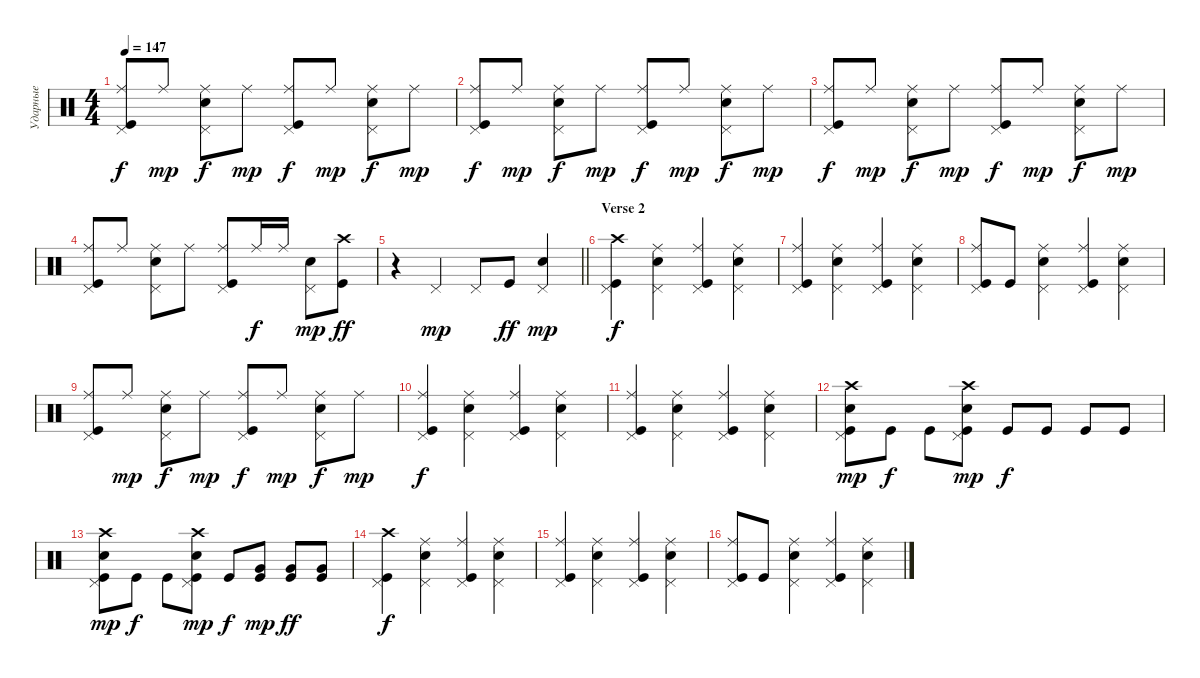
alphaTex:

\track ("Ударные" "Ударные") {instrument percussion}
\staff {score}
\articulation defaults
\ts (4 4)
\tempo 147
\clef neutral
\ks c
("Kick (hit)" "Ride (middle)" "Pedal Hi-Hat (hit)").8{dy f} "Ride (middle)".8{dy mp} ("Snare (hit) 2" "Ride (middle)" "Pedal Hi-Hat (hit)").8{dy f} "Ride (middle)".8{dy mp} ("Kick (hit)" "Pedal Hi-Hat (hit)" "Ride (middle)").8{dy f} "Ride (middle)".8{dy mp} ("Snare (hit) 2" "Pedal Hi-Hat (hit)" "Ride (middle)").8{dy f} "Ride (middle)".8{dy mp} |
("Kick (hit)" "Ride (middle)" "Pedal Hi-Hat (hit)").8{dy f} "Ride (middle)".8{dy mp} ("Snare (hit) 2" "Ride (middle)" "Pedal Hi-Hat (hit)").8{dy f} "Ride (middle)".8{dy mp} ("Kick (hit)" "Pedal Hi-Hat (hit)" "Ride (middle)").8{dy f} "Ride (middle)".8{dy mp} ("Snare (hit) 2" "Pedal Hi-Hat (hit)" "Ride (middle)").8{dy f} "Ride (middle)".8{dy mp} |
("Kick (hit)" "Ride (middle)" "Pedal Hi-Hat (hit)").8{dy f} "Ride (middle)".8{dy mp} ("Snare (hit) 2" "Ride (middle)" "Pedal Hi-Hat (hit)").8{dy f} "Ride (middle)".8{dy mp} ("Kick (hit)" "Pedal Hi-Hat (hit)" "Ride (middle)").8{dy f} "Ride (middle)".8{dy mp} ("Snare (hit) 2" "Pedal Hi-Hat (hit)" "Ride (middle)").8{dy f} "Ride (middle)".8{dy mp} |
("Kick (hit)" "Ride (middle)" "Pedal Hi-Hat (hit)").8 "Ride (middle)".8 ("Snare (hit) 2" "Ride (middle)" "Pedal Hi-Hat (hit)").8 "Ride (middle)".8 ("Kick (hit)" "Ride (middle)" "Pedal Hi-Hat (hit)").8 "Ride (middle)".16{dy f} "Ride (middle)".16 ("Snare (hit) 2" "Pedal Hi-Hat (hit)").8{dy mp} ("Kick (hit)" "Crash high (hit)").8{dy ff} |
\barLineRight lightlight
r.4 "Pedal Hi-Hat (hit)".4{dy mp} "Pedal Hi-Hat (hit)".8 "Kick (hit)".8{dy ff} ("Snare (hit) 2" "Pedal Hi-Hat (hit)").4{dy mp} |
\section ("" "Verse 2")
("Kick (hit)" "Crash high (hit)" "Pedal Hi-Hat (hit)").4{dy f} ("Ride (middle)" "Snare (hit) 2" "Pedal Hi-Hat (hit)").4 ("Ride (middle)" "Kick (hit)" "Pedal Hi-Hat (hit)").4 ("Ride (middle)" "Snare (hit) 2" "Pedal Hi-Hat (hit)").4 |
("Kick (hit)" "Ride (middle)" "Pedal Hi-Hat (hit)").4 ("Snare (hit) 2" "Ride (middle)" "Pedal Hi-Hat (hit)").4 ("Kick (hit)" "Ride (middle)" "Pedal Hi-Hat (hit)").4 ("Snare (hit) 2" "Ride (middle)" "Pedal Hi-Hat (hit)").4 |
("Kick (hit)" "Pedal Hi-Hat (hit)" "Ride (middle)").8 "Kick (hit)".8 ("Snare (hit) 2" "Ride (middle)" "Pedal Hi-Hat (hit)").4 ("Kick (hit)" "Ride (middle)" "Pedal Hi-Hat (hit)").4 ("Snare (hit) 2" "Ride (middle)" "Pedal Hi-Hat (hit)").4 |
("Kick (hit)" "Ride (middle)" "Pedal Hi-Hat (hit)").8 "Ride (middle)".8{dy mp} ("Snare (hit) 2" "Ride (middle)" "Pedal Hi-Hat (hit)").8{dy f} "Ride (middle)".8{dy mp} ("Kick (hit)" "Pedal Hi-Hat (hit)" "Ride (middle)").8{dy f} "Ride (middle)".8{dy mp} ("Snare (hit) 2" "Pedal Hi-Hat (hit)" "Ride (middle)").8{dy f} "Ride (middle)".8{dy mp} |
("Kick (hit)" "Ride (middle)" "Pedal Hi-Hat (hit)").4{dy f} ("Snare (hit) 2" "Ride (middle)" "Pedal Hi-Hat (hit)").4 ("Kick (hit)" "Ride (middle)" "Pedal Hi-Hat (hit)").4 ("Snare (hit) 2" "Ride (middle)" "Pedal Hi-Hat (hit)").4 |
("Kick (hit)" "Ride (middle)" "Pedal Hi-Hat (hit)").4 ("Snare (hit) 2" "Ride (middle)" "Pedal Hi-Hat (hit)").4 ("Kick (hit)" "Ride (middle)" "Pedal Hi-Hat (hit)").4 ("Snare (hit) 2" "Ride (middle)" "Pedal Hi-Hat (hit)").4 |
("Snare (hit) 2" "Crash high (hit)" "Pedal Hi-Hat (hit)" "Kick (hit)").8{dy mp} "Kick (hit)".8{dy f} "Kick (hit)".8 ("Snare (hit) 2" "Crash high (hit)" "Pedal Hi-Hat (hit)" "Kick (hit)").8{dy mp} "Kick (hit)".8{dy f} "Kick (hit)".8 "Kick (hit)".8 "Kick (hit)".8 |
("Snare (hit) 2" "Crash high (hit)" "Pedal Hi-Hat (hit)" "Kick (hit)").8{dy mp} "Kick (hit)".8{dy f} "Kick (hit)".8 ("Snare (hit) 2" "Crash high (hit)" "Pedal Hi-Hat (hit)" "Kick (hit)").8{dy mp} "Kick (hit)".8{dy f} ("Kick (hit)" "Very Low Tom (hit)").8{dy mp} ("Kick (hit)" "Very Low Tom (hit)").8{dy ff} ("Kick (hit)" "Very Low Tom (hit)").8 |
("Kick (hit)" "Crash high (hit)" "Pedal Hi-Hat (hit)").4{dy f} ("Ride (middle)" "Snare (hit) 2" "Pedal Hi-Hat (hit)").4 ("Ride (middle)" "Kick (hit)" "Pedal Hi-Hat (hit)").4 ("Ride (middle)" "Snare (hit) 2" "Pedal Hi-Hat (hit)").4 |
("Kick (hit)" "Ride (middle)" "Pedal Hi-Hat (hit)").4 ("Snare (hit) 2" "Ride (middle)" "Pedal Hi-Hat (hit)").4 ("Kick (hit)" "Ride (middle)" "Pedal Hi-Hat (hit)").4 ("Snare (hit) 2" "Ride (middle)" "Pedal Hi-Hat (hit)").4 |
("Kick (hit)" "Pedal Hi-Hat (hit)" "Ride (middle)").8 "Kick (hit)".8 ("Snare (hit) 2" "Ride (middle)" "Pedal Hi-Hat (hit)").4 ("Kick (hit)" "Ride (middle)" "Pedal Hi-Hat (hit)").4 ("Snare (hit) 2" "Ride (middle)" "Pedal Hi-Hat (hit)").4
